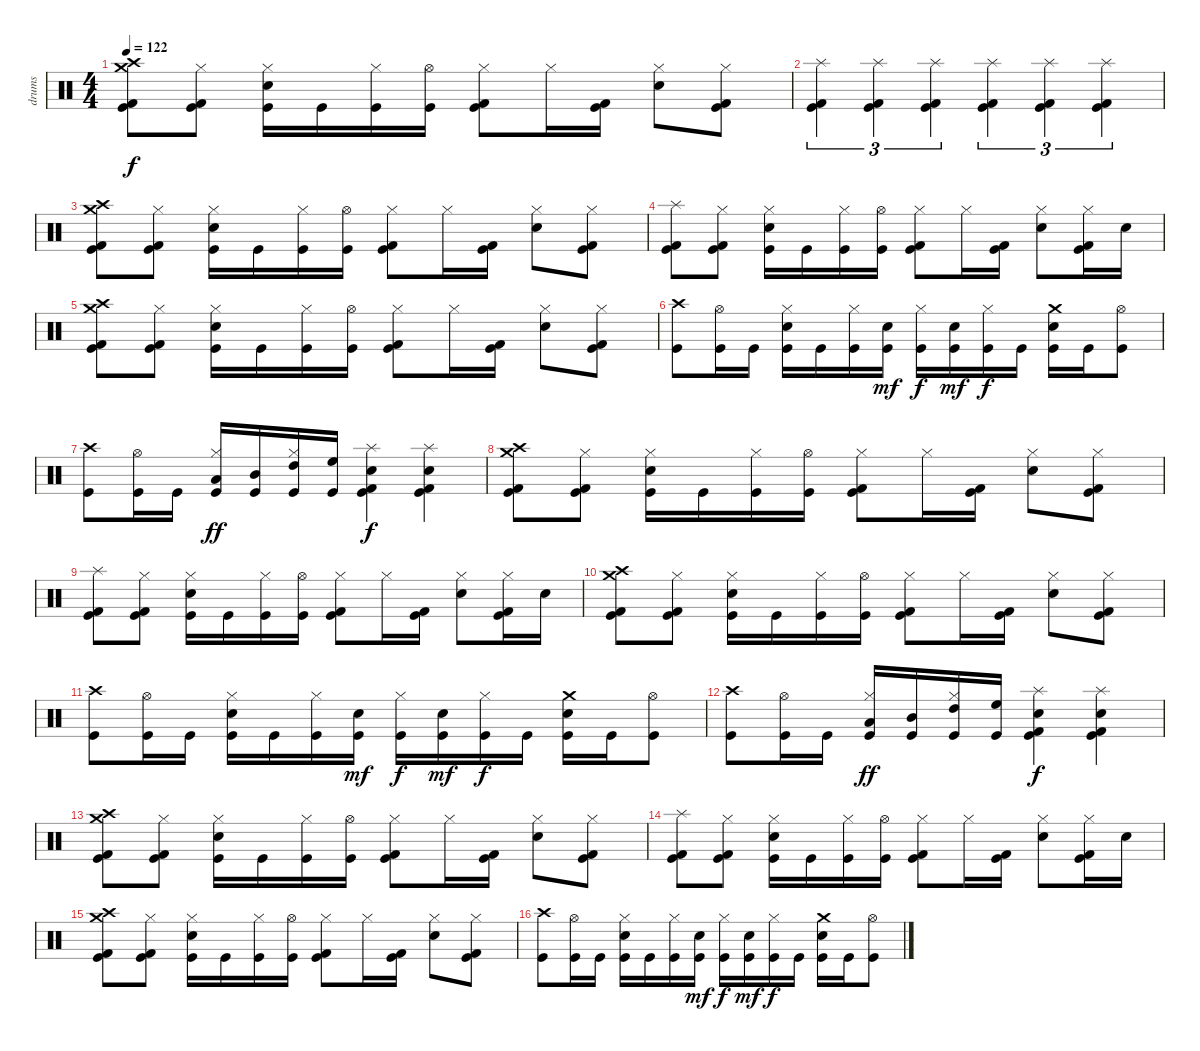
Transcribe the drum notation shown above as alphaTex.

\track ("drums" "drums") {instrument percussion}
\staff {score}
\articulation defaults
\ts (4 4)
\tempo 122
\clef neutral
\ks c
("Crash high (hit)" "Crash medium (hit)" "Kick (hit) 2" "Kick (hit)").8{dy f} ("Hi-Hat (closed)" "Kick (hit) 2" "Kick (hit)").8 ("Hi-Hat (closed)" "Electric Snare (hit)" "Kick (hit)").16 "Kick (hit)".16 ("Hi-Hat (closed)" "Kick (hit)").16 ("Hi-Hat (open)" "Kick (hit)").16 ("Hi-Hat (closed)" "Kick (hit) 2" "Kick (hit)").8 "Hi-Hat (closed)".16 ("Kick (hit) 2" "Kick (hit)").16 ("Hi-Hat (closed)" "Electric Snare (hit)").8 ("Hi-Hat (closed)" "Kick (hit) 2" "Kick (hit)").8 |
("Splash (hit)" "Kick (hit) 2" "Kick (hit)").4{tu (3 2)} ("Splash (hit)" "Kick (hit) 2" "Kick (hit)").4{tu (3 2)} ("Splash (hit)" "Kick (hit) 2" "Kick (hit)").4{tu (3 2)} ("Splash (hit)" "Kick (hit) 2" "Kick (hit)").4{tu (3 2)} ("Splash (hit)" "Kick (hit) 2" "Kick (hit)").4{tu (3 2)} ("Splash (hit)" "Kick (hit) 2" "Kick (hit)").4{tu (3 2)} |
("Crash high (hit)" "Crash medium (hit)" "Kick (hit) 2" "Kick (hit)").8 ("Hi-Hat (closed)" "Kick (hit) 2" "Kick (hit)").8 ("Hi-Hat (closed)" "Electric Snare (hit)" "Kick (hit)").16 "Kick (hit)".16 ("Hi-Hat (closed)" "Kick (hit)").16 ("Hi-Hat (open)" "Kick (hit)").16 ("Hi-Hat (closed)" "Kick (hit) 2" "Kick (hit)").8 "Hi-Hat (closed)".16 ("Kick (hit) 2" "Kick (hit)").16 ("Hi-Hat (closed)" "Electric Snare (hit)").8 ("Hi-Hat (closed)" "Kick (hit) 2" "Kick (hit)").8 |
("Splash (hit)" "Kick (hit) 2" "Kick (hit)").8 ("Hi-Hat (closed)" "Kick (hit) 2" "Kick (hit)").8 ("Hi-Hat (closed)" "Electric Snare (hit)" "Kick (hit)").16 "Kick (hit)".16 ("Hi-Hat (closed)" "Kick (hit)").16 ("Hi-Hat (open)" "Kick (hit)").16 ("Hi-Hat (closed)" "Kick (hit) 2" "Kick (hit)").8 "Hi-Hat (closed)".16 ("Kick (hit) 2" "Kick (hit)").16 ("Hi-Hat (closed)" "Electric Snare (hit)").8 ("Hi-Hat (closed)" "Kick (hit) 2" "Kick (hit)").16 "Electric Snare (hit)".16 |
("Crash high (hit)" "Crash medium (hit)" "Kick (hit) 2" "Kick (hit)").8 ("Hi-Hat (closed)" "Kick (hit) 2" "Kick (hit)").8 ("Hi-Hat (closed)" "Electric Snare (hit)" "Kick (hit)").16 "Kick (hit)".16 ("Hi-Hat (closed)" "Kick (hit)").16 ("Hi-Hat (open)" "Kick (hit)").16 ("Hi-Hat (closed)" "Kick (hit) 2" "Kick (hit)").8 "Hi-Hat (closed)".16 ("Kick (hit) 2" "Kick (hit)").16 ("Hi-Hat (closed)" "Electric Snare (hit)").8 ("Hi-Hat (closed)" "Kick (hit) 2" "Kick (hit)").8 |
("Crash high (hit)" "Kick (hit)").8 ("Hi-Hat (open)" "Kick (hit)").16 "Kick (hit)".16 ("Hi-Hat (closed)" "Electric Snare (hit)" "Kick (hit)").16 "Kick (hit)".16 ("Hi-Hat (closed)" "Kick (hit)").16 ("Electric Snare (hit)" "Kick (hit)").16{dy mf} ("Hi-Hat (closed)" "Kick (hit)").16{dy f} ("Electric Snare (hit)" "Kick (hit)").16{dy mf} ("Hi-Hat (closed)" "Kick (hit)").16{dy f} "Kick (hit)".16 ("Crash medium (hit)" "Electric Snare (hit)" "Kick (hit)").16 "Kick (hit)".16 ("Hi-Hat (open)" "Kick (hit)").8 |
("Crash high (hit)" "Kick (hit)").8 ("Hi-Hat (open)" "Kick (hit)").16 "Kick (hit)".16 ("Hi-Hat (closed)" "Low Tom (hit)" "Kick (hit)").16{dy ff} ("Mid Tom (hit)" "Kick (hit)").16 ("Hi-Hat (closed)" "High Tom (hit)" "Kick (hit)").16 ("High Floor Tom (hit)" "Kick (hit)").16 ("Splash (hit)" "Electric Snare (hit)" "Kick (hit) 2" "Kick (hit)").4{dy f} ("Splash (hit)" "Electric Snare (hit)" "Kick (hit) 2" "Kick (hit)").4 |
("Crash high (hit)" "Crash medium (hit)" "Kick (hit) 2" "Kick (hit)").8 ("Hi-Hat (closed)" "Kick (hit) 2" "Kick (hit)").8 ("Hi-Hat (closed)" "Electric Snare (hit)" "Kick (hit)").16 "Kick (hit)".16 ("Hi-Hat (closed)" "Kick (hit)").16 ("Hi-Hat (open)" "Kick (hit)").16 ("Hi-Hat (closed)" "Kick (hit) 2" "Kick (hit)").8 "Hi-Hat (closed)".16 ("Kick (hit) 2" "Kick (hit)").16 ("Hi-Hat (closed)" "Electric Snare (hit)").8 ("Hi-Hat (closed)" "Kick (hit) 2" "Kick (hit)").8 |
("Splash (hit)" "Kick (hit) 2" "Kick (hit)").8 ("Hi-Hat (closed)" "Kick (hit) 2" "Kick (hit)").8 ("Hi-Hat (closed)" "Electric Snare (hit)" "Kick (hit)").16 "Kick (hit)".16 ("Hi-Hat (closed)" "Kick (hit)").16 ("Hi-Hat (open)" "Kick (hit)").16 ("Hi-Hat (closed)" "Kick (hit) 2" "Kick (hit)").8 "Hi-Hat (closed)".16 ("Kick (hit) 2" "Kick (hit)").16 ("Hi-Hat (closed)" "Electric Snare (hit)").8 ("Hi-Hat (closed)" "Kick (hit) 2" "Kick (hit)").16 "Electric Snare (hit)".16 |
("Crash high (hit)" "Crash medium (hit)" "Kick (hit) 2" "Kick (hit)").8 ("Hi-Hat (closed)" "Kick (hit) 2" "Kick (hit)").8 ("Hi-Hat (closed)" "Electric Snare (hit)" "Kick (hit)").16 "Kick (hit)".16 ("Hi-Hat (closed)" "Kick (hit)").16 ("Hi-Hat (open)" "Kick (hit)").16 ("Hi-Hat (closed)" "Kick (hit) 2" "Kick (hit)").8 "Hi-Hat (closed)".16 ("Kick (hit) 2" "Kick (hit)").16 ("Hi-Hat (closed)" "Electric Snare (hit)").8 ("Hi-Hat (closed)" "Kick (hit) 2" "Kick (hit)").8 |
("Crash high (hit)" "Kick (hit)").8 ("Hi-Hat (open)" "Kick (hit)").16 "Kick (hit)".16 ("Hi-Hat (closed)" "Electric Snare (hit)" "Kick (hit)").16 "Kick (hit)".16 ("Hi-Hat (closed)" "Kick (hit)").16 ("Electric Snare (hit)" "Kick (hit)").16{dy mf} ("Hi-Hat (closed)" "Kick (hit)").16{dy f} ("Electric Snare (hit)" "Kick (hit)").16{dy mf} ("Hi-Hat (closed)" "Kick (hit)").16{dy f} "Kick (hit)".16 ("Crash medium (hit)" "Electric Snare (hit)" "Kick (hit)").16 "Kick (hit)".16 ("Hi-Hat (open)" "Kick (hit)").8 |
("Crash high (hit)" "Kick (hit)").8 ("Hi-Hat (open)" "Kick (hit)").16 "Kick (hit)".16 ("Hi-Hat (closed)" "Low Tom (hit)" "Kick (hit)").16{dy ff} ("Mid Tom (hit)" "Kick (hit)").16 ("Hi-Hat (closed)" "High Tom (hit)" "Kick (hit)").16 ("High Floor Tom (hit)" "Kick (hit)").16 ("Splash (hit)" "Electric Snare (hit)" "Kick (hit) 2" "Kick (hit)").4{dy f} ("Splash (hit)" "Electric Snare (hit)" "Kick (hit) 2" "Kick (hit)").4 |
("Crash high (hit)" "Crash medium (hit)" "Kick (hit) 2" "Kick (hit)").8 ("Hi-Hat (closed)" "Kick (hit) 2" "Kick (hit)").8 ("Hi-Hat (closed)" "Electric Snare (hit)" "Kick (hit)").16 "Kick (hit)".16 ("Hi-Hat (closed)" "Kick (hit)").16 ("Hi-Hat (open)" "Kick (hit)").16 ("Hi-Hat (closed)" "Kick (hit) 2" "Kick (hit)").8 "Hi-Hat (closed)".16 ("Kick (hit) 2" "Kick (hit)").16 ("Hi-Hat (closed)" "Electric Snare (hit)").8 ("Hi-Hat (closed)" "Kick (hit) 2" "Kick (hit)").8 |
("Splash (hit)" "Kick (hit) 2" "Kick (hit)").8 ("Hi-Hat (closed)" "Kick (hit) 2" "Kick (hit)").8 ("Hi-Hat (closed)" "Electric Snare (hit)" "Kick (hit)").16 "Kick (hit)".16 ("Hi-Hat (closed)" "Kick (hit)").16 ("Hi-Hat (open)" "Kick (hit)").16 ("Hi-Hat (closed)" "Kick (hit) 2" "Kick (hit)").8 "Hi-Hat (closed)".16 ("Kick (hit) 2" "Kick (hit)").16 ("Hi-Hat (closed)" "Electric Snare (hit)").8 ("Hi-Hat (closed)" "Kick (hit) 2" "Kick (hit)").16 "Electric Snare (hit)".16 |
("Crash high (hit)" "Crash medium (hit)" "Kick (hit) 2" "Kick (hit)").8 ("Hi-Hat (closed)" "Kick (hit) 2" "Kick (hit)").8 ("Hi-Hat (closed)" "Electric Snare (hit)" "Kick (hit)").16 "Kick (hit)".16 ("Hi-Hat (closed)" "Kick (hit)").16 ("Hi-Hat (open)" "Kick (hit)").16 ("Hi-Hat (closed)" "Kick (hit) 2" "Kick (hit)").8 "Hi-Hat (closed)".16 ("Kick (hit) 2" "Kick (hit)").16 ("Hi-Hat (closed)" "Electric Snare (hit)").8 ("Hi-Hat (closed)" "Kick (hit) 2" "Kick (hit)").8 |
("Crash high (hit)" "Kick (hit)").8 ("Hi-Hat (open)" "Kick (hit)").16 "Kick (hit)".16 ("Hi-Hat (closed)" "Electric Snare (hit)" "Kick (hit)").16 "Kick (hit)".16 ("Hi-Hat (closed)" "Kick (hit)").16 ("Electric Snare (hit)" "Kick (hit)").16{dy mf} ("Hi-Hat (closed)" "Kick (hit)").16{dy f} ("Electric Snare (hit)" "Kick (hit)").16{dy mf} ("Hi-Hat (closed)" "Kick (hit)").16{dy f} "Kick (hit)".16 ("Crash medium (hit)" "Electric Snare (hit)" "Kick (hit)").16 "Kick (hit)".16 ("Hi-Hat (open)" "Kick (hit)").8
